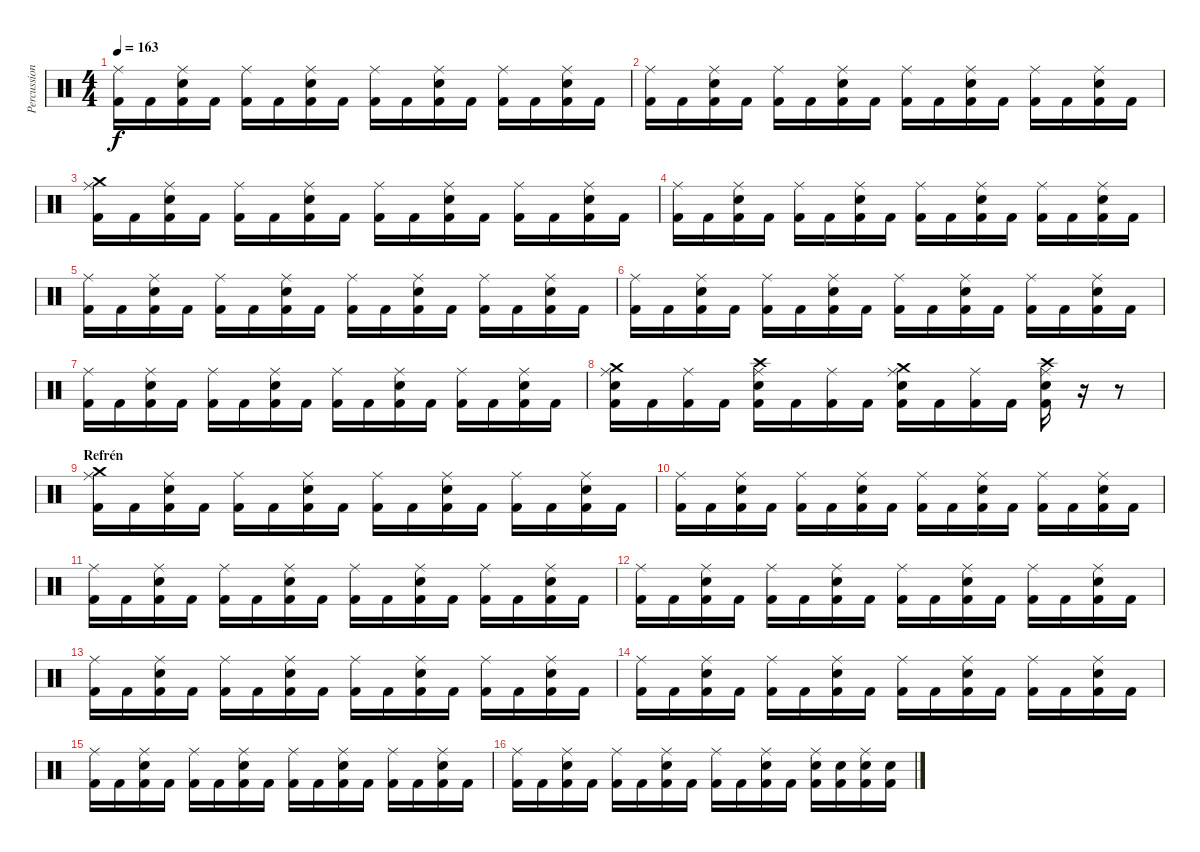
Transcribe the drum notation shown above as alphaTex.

\track ("Percussion" "Percussion") {instrument percussion}
\staff {score}
\articulation defaults
\ts (4 4)
\tempo 163
\clef neutral
\ks c
("Ride (middle)" "Kick (hit) 2").16{dy f} "Kick (hit) 2".16 ("Ride (middle)" "Kick (hit) 2" "Electric Snare (hit)").16 "Kick (hit) 2".16 ("Ride (middle)" "Kick (hit) 2").16 "Kick (hit) 2".16 ("Ride (middle)" "Kick (hit) 2" "Electric Snare (hit)").16 "Kick (hit) 2".16 ("Ride (middle)" "Kick (hit) 2").16 "Kick (hit) 2".16 ("Ride (middle)" "Kick (hit) 2" "Electric Snare (hit)").16 "Kick (hit) 2".16 ("Ride (middle)" "Kick (hit) 2").16 "Kick (hit) 2".16 ("Ride (middle)" "Kick (hit) 2" "Electric Snare (hit)").16 "Kick (hit) 2".16 |
("Ride (middle)" "Kick (hit) 2").16 "Kick (hit) 2".16 ("Ride (middle)" "Kick (hit) 2" "Electric Snare (hit)").16 "Kick (hit) 2".16 ("Ride (middle)" "Kick (hit) 2").16 "Kick (hit) 2".16 ("Ride (middle)" "Kick (hit) 2" "Electric Snare (hit)").16 "Kick (hit) 2".16 ("Ride (middle)" "Kick (hit) 2").16 "Kick (hit) 2".16 ("Ride (middle)" "Kick (hit) 2" "Electric Snare (hit)").16 "Kick (hit) 2".16 ("Ride (middle)" "Kick (hit) 2").16 "Kick (hit) 2".16 ("Ride (middle)" "Kick (hit) 2" "Electric Snare (hit)").16 "Kick (hit) 2".16 |
("Ride (middle)" "Crash medium (hit)" "Kick (hit) 2").16 "Kick (hit) 2".16 ("Ride (middle)" "Kick (hit) 2" "Electric Snare (hit)").16 "Kick (hit) 2".16 ("Ride (middle)" "Kick (hit) 2").16 "Kick (hit) 2".16 ("Ride (middle)" "Kick (hit) 2" "Electric Snare (hit)").16 "Kick (hit) 2".16 ("Ride (middle)" "Kick (hit) 2").16 "Kick (hit) 2".16 ("Ride (middle)" "Kick (hit) 2" "Electric Snare (hit)").16 "Kick (hit) 2".16 ("Ride (middle)" "Kick (hit) 2").16 "Kick (hit) 2".16 ("Ride (middle)" "Kick (hit) 2" "Electric Snare (hit)").16 "Kick (hit) 2".16 |
("Ride (middle)" "Kick (hit) 2").16 "Kick (hit) 2".16 ("Ride (middle)" "Kick (hit) 2" "Electric Snare (hit)").16 "Kick (hit) 2".16 ("Ride (middle)" "Kick (hit) 2").16 "Kick (hit) 2".16 ("Ride (middle)" "Kick (hit) 2" "Electric Snare (hit)").16 "Kick (hit) 2".16 ("Ride (middle)" "Kick (hit) 2").16 "Kick (hit) 2".16 ("Ride (middle)" "Kick (hit) 2" "Electric Snare (hit)").16 "Kick (hit) 2".16 ("Ride (middle)" "Kick (hit) 2").16 "Kick (hit) 2".16 ("Ride (middle)" "Kick (hit) 2" "Electric Snare (hit)").16 "Kick (hit) 2".16 |
("Ride (middle)" "Kick (hit) 2").16 "Kick (hit) 2".16 ("Ride (middle)" "Kick (hit) 2" "Electric Snare (hit)").16 "Kick (hit) 2".16 ("Ride (middle)" "Kick (hit) 2").16 "Kick (hit) 2".16 ("Ride (middle)" "Kick (hit) 2" "Electric Snare (hit)").16 "Kick (hit) 2".16 ("Ride (middle)" "Kick (hit) 2").16 "Kick (hit) 2".16 ("Ride (middle)" "Kick (hit) 2" "Electric Snare (hit)").16 "Kick (hit) 2".16 ("Ride (middle)" "Kick (hit) 2").16 "Kick (hit) 2".16 ("Ride (middle)" "Kick (hit) 2" "Electric Snare (hit)").16 "Kick (hit) 2".16 |
("Ride (middle)" "Kick (hit) 2").16 "Kick (hit) 2".16 ("Ride (middle)" "Kick (hit) 2" "Electric Snare (hit)").16 "Kick (hit) 2".16 ("Ride (middle)" "Kick (hit) 2").16 "Kick (hit) 2".16 ("Ride (middle)" "Kick (hit) 2" "Electric Snare (hit)").16 "Kick (hit) 2".16 ("Ride (middle)" "Kick (hit) 2").16 "Kick (hit) 2".16 ("Ride (middle)" "Kick (hit) 2" "Electric Snare (hit)").16 "Kick (hit) 2".16 ("Ride (middle)" "Kick (hit) 2").16 "Kick (hit) 2".16 ("Ride (middle)" "Kick (hit) 2" "Electric Snare (hit)").16 "Kick (hit) 2".16 |
("Ride (middle)" "Kick (hit) 2").16 "Kick (hit) 2".16 ("Ride (middle)" "Kick (hit) 2" "Electric Snare (hit)").16 "Kick (hit) 2".16 ("Ride (middle)" "Kick (hit) 2").16 "Kick (hit) 2".16 ("Ride (middle)" "Kick (hit) 2" "Electric Snare (hit)").16 "Kick (hit) 2".16 ("Ride (middle)" "Kick (hit) 2").16 "Kick (hit) 2".16 ("Ride (middle)" "Kick (hit) 2" "Electric Snare (hit)").16 "Kick (hit) 2".16 ("Ride (middle)" "Kick (hit) 2").16 "Kick (hit) 2".16 ("Ride (middle)" "Kick (hit) 2" "Electric Snare (hit)").16 "Kick (hit) 2".16 |
("Ride (middle)" "Crash medium (hit)" "Kick (hit) 2" "Electric Snare (hit)").16 "Kick (hit) 2".16 ("Ride (middle)" "Kick (hit) 2").16 "Kick (hit) 2".16 ("Ride (middle)" "Crash high (hit)" "Kick (hit) 2" "Electric Snare (hit)").16 "Kick (hit) 2".16 ("Ride (middle)" "Kick (hit) 2").16 "Kick (hit) 2".16 ("Ride (middle)" "Crash medium (hit)" "Kick (hit) 2" "Electric Snare (hit)").16 "Kick (hit) 2".16 ("Ride (middle)" "Kick (hit) 2").16 "Kick (hit) 2".16 ("Ride (middle)" "Crash high (hit)" "Kick (hit) 2" "Electric Snare (hit)").16 r.16 r.8 |
\section ("" "Refrén")
("Ride (middle)" "Crash medium (hit)" "Kick (hit) 2").16 "Kick (hit) 2".16 ("Ride (middle)" "Kick (hit) 2" "Electric Snare (hit)").16 "Kick (hit) 2".16 ("Ride (middle)" "Kick (hit) 2").16 "Kick (hit) 2".16 ("Ride (middle)" "Kick (hit) 2" "Electric Snare (hit)").16 "Kick (hit) 2".16 ("Ride (middle)" "Kick (hit) 2").16 "Kick (hit) 2".16 ("Ride (middle)" "Kick (hit) 2" "Electric Snare (hit)").16 "Kick (hit) 2".16 ("Ride (middle)" "Kick (hit) 2").16 "Kick (hit) 2".16 ("Ride (middle)" "Kick (hit) 2" "Electric Snare (hit)").16 "Kick (hit) 2".16 |
("Ride (middle)" "Kick (hit) 2").16 "Kick (hit) 2".16 ("Ride (middle)" "Kick (hit) 2" "Electric Snare (hit)").16 "Kick (hit) 2".16 ("Ride (middle)" "Kick (hit) 2").16 "Kick (hit) 2".16 ("Ride (middle)" "Kick (hit) 2" "Electric Snare (hit)").16 "Kick (hit) 2".16 ("Ride (middle)" "Kick (hit) 2").16 "Kick (hit) 2".16 ("Ride (middle)" "Kick (hit) 2" "Electric Snare (hit)").16 "Kick (hit) 2".16 ("Ride (middle)" "Kick (hit) 2").16 "Kick (hit) 2".16 ("Ride (middle)" "Kick (hit) 2" "Electric Snare (hit)").16 "Kick (hit) 2".16 |
("Ride (middle)" "Kick (hit) 2").16 "Kick (hit) 2".16 ("Ride (middle)" "Kick (hit) 2" "Electric Snare (hit)").16 "Kick (hit) 2".16 ("Ride (middle)" "Kick (hit) 2").16 "Kick (hit) 2".16 ("Ride (middle)" "Kick (hit) 2" "Electric Snare (hit)").16 "Kick (hit) 2".16 ("Ride (middle)" "Kick (hit) 2").16 "Kick (hit) 2".16 ("Ride (middle)" "Kick (hit) 2" "Electric Snare (hit)").16 "Kick (hit) 2".16 ("Ride (middle)" "Kick (hit) 2").16 "Kick (hit) 2".16 ("Ride (middle)" "Kick (hit) 2" "Electric Snare (hit)").16 "Kick (hit) 2".16 |
("Ride (middle)" "Kick (hit) 2").16 "Kick (hit) 2".16 ("Ride (middle)" "Kick (hit) 2" "Electric Snare (hit)").16 "Kick (hit) 2".16 ("Ride (middle)" "Kick (hit) 2").16 "Kick (hit) 2".16 ("Ride (middle)" "Kick (hit) 2" "Electric Snare (hit)").16 "Kick (hit) 2".16 ("Ride (middle)" "Kick (hit) 2").16 "Kick (hit) 2".16 ("Ride (middle)" "Kick (hit) 2" "Electric Snare (hit)").16 "Kick (hit) 2".16 ("Ride (middle)" "Kick (hit) 2").16 "Kick (hit) 2".16 ("Ride (middle)" "Kick (hit) 2" "Electric Snare (hit)").16 "Kick (hit) 2".16 |
("Ride (middle)" "Kick (hit) 2").16 "Kick (hit) 2".16 ("Ride (middle)" "Kick (hit) 2" "Electric Snare (hit)").16 "Kick (hit) 2".16 ("Ride (middle)" "Kick (hit) 2").16 "Kick (hit) 2".16 ("Ride (middle)" "Kick (hit) 2" "Electric Snare (hit)").16 "Kick (hit) 2".16 ("Ride (middle)" "Kick (hit) 2").16 "Kick (hit) 2".16 ("Ride (middle)" "Kick (hit) 2" "Electric Snare (hit)").16 "Kick (hit) 2".16 ("Ride (middle)" "Kick (hit) 2").16 "Kick (hit) 2".16 ("Ride (middle)" "Kick (hit) 2" "Electric Snare (hit)").16 "Kick (hit) 2".16 |
("Ride (middle)" "Kick (hit) 2").16 "Kick (hit) 2".16 ("Ride (middle)" "Kick (hit) 2" "Electric Snare (hit)").16 "Kick (hit) 2".16 ("Ride (middle)" "Kick (hit) 2").16 "Kick (hit) 2".16 ("Ride (middle)" "Kick (hit) 2" "Electric Snare (hit)").16 "Kick (hit) 2".16 ("Ride (middle)" "Kick (hit) 2").16 "Kick (hit) 2".16 ("Ride (middle)" "Kick (hit) 2" "Electric Snare (hit)").16 "Kick (hit) 2".16 ("Ride (middle)" "Kick (hit) 2").16 "Kick (hit) 2".16 ("Ride (middle)" "Kick (hit) 2" "Electric Snare (hit)").16 "Kick (hit) 2".16 |
("Ride (middle)" "Kick (hit) 2").16 "Kick (hit) 2".16 ("Ride (middle)" "Kick (hit) 2" "Electric Snare (hit)").16 "Kick (hit) 2".16 ("Ride (middle)" "Kick (hit) 2").16 "Kick (hit) 2".16 ("Ride (middle)" "Kick (hit) 2" "Electric Snare (hit)").16 "Kick (hit) 2".16 ("Ride (middle)" "Kick (hit) 2").16 "Kick (hit) 2".16 ("Ride (middle)" "Kick (hit) 2" "Electric Snare (hit)").16 "Kick (hit) 2".16 ("Ride (middle)" "Kick (hit) 2").16 "Kick (hit) 2".16 ("Ride (middle)" "Kick (hit) 2" "Electric Snare (hit)").16 "Kick (hit) 2".16 |
("Ride (middle)" "Kick (hit) 2").16 "Kick (hit) 2".16 ("Ride (middle)" "Kick (hit) 2" "Electric Snare (hit)").16 "Kick (hit) 2".16 ("Ride (middle)" "Kick (hit) 2").16 "Kick (hit) 2".16 ("Ride (middle)" "Kick (hit) 2" "Electric Snare (hit)").16 "Kick (hit) 2".16 ("Ride (middle)" "Kick (hit) 2").16 "Kick (hit) 2".16 ("Ride (middle)" "Kick (hit) 2" "Electric Snare (hit)").16 "Kick (hit) 2".16 ("Ride (middle)" "Kick (hit) 2" "Electric Snare (hit)").16 ("Kick (hit) 2" "Electric Snare (hit)").16 ("Ride (middle)" "Kick (hit) 2" "Electric Snare (hit)").16 ("Kick (hit) 2" "Electric Snare (hit)").16
